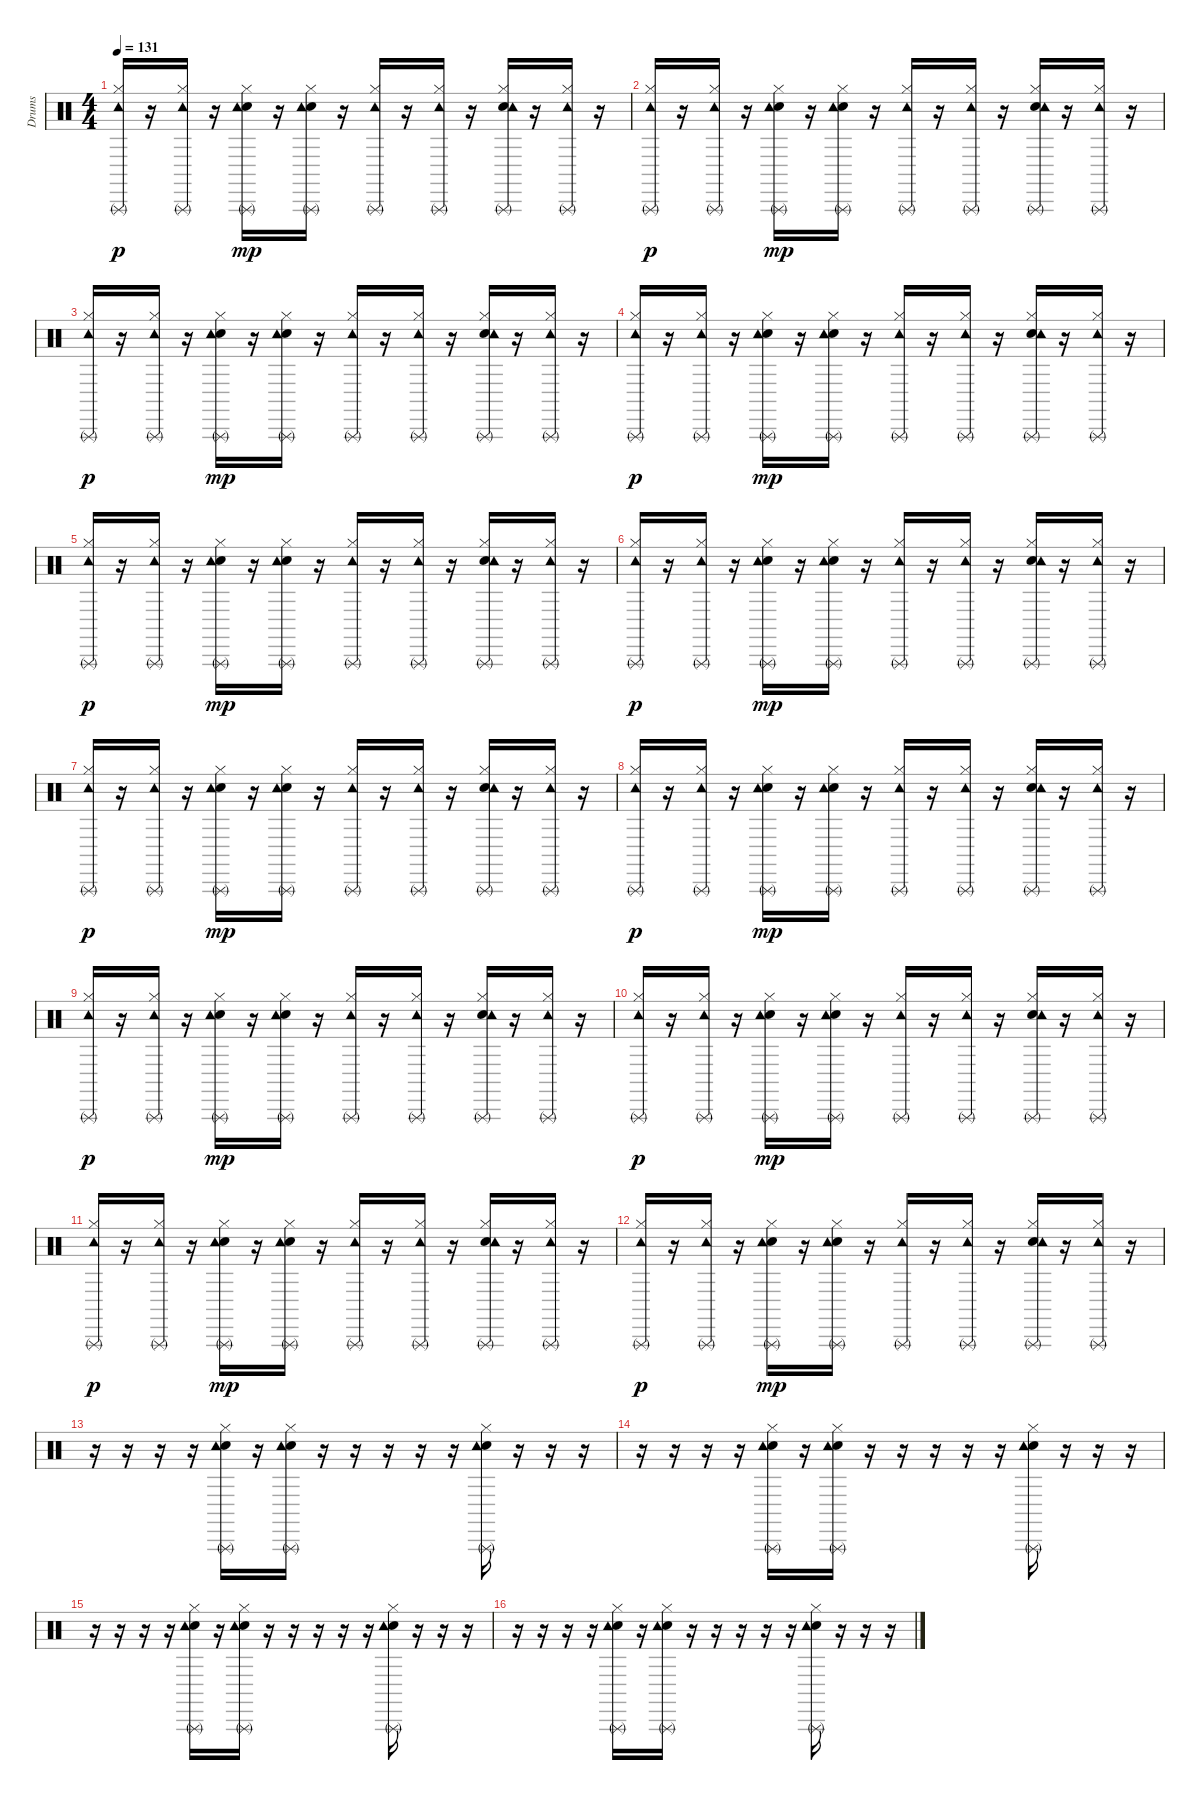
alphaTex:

\track ("Drums" "Drums") {instrument percussion}
\staff {score}
\articulation defaults
\ts (4 4)
\tempo 131
\clef neutral
\ks c
("Tambourine (hit)" "Hi-Hat (closed)" "Triangle (rnute)").16{dy p} r.16 ("Tambourine (hit)" "Hi-Hat (closed)" "Triangle (rnute)").16 r.16 ("Electric Snare (hit)" "Tambourine (hit)" "Hi-Hat (closed)" "Triangle (rnute)").16{dy mp} r.16 ("Electric Snare (hit)" "Tambourine (hit)" "Hi-Hat (closed)" "Triangle (rnute)").16 r.16 ("Tambourine (hit)" "Hi-Hat (closed)" "Triangle (rnute)").16 r.16 ("Tambourine (hit)" "Hi-Hat (closed)" "Triangle (rnute)").16 r.16 ("Electric Snare (hit)" "Tambourine (hit)" "Hi-Hat (closed)" "Triangle (rnute)").16 r.16 ("Tambourine (hit)" "Hi-Hat (closed)" "Triangle (rnute)").16 r.16 |
("Tambourine (hit)" "Hi-Hat (closed)" "Triangle (rnute)").16{dy p} r.16 ("Tambourine (hit)" "Hi-Hat (closed)" "Triangle (rnute)").16 r.16 ("Electric Snare (hit)" "Tambourine (hit)" "Hi-Hat (closed)" "Triangle (rnute)").16{dy mp} r.16 ("Electric Snare (hit)" "Tambourine (hit)" "Hi-Hat (closed)" "Triangle (rnute)").16 r.16 ("Tambourine (hit)" "Hi-Hat (closed)" "Triangle (rnute)").16 r.16 ("Tambourine (hit)" "Hi-Hat (closed)" "Triangle (rnute)").16 r.16 ("Electric Snare (hit)" "Tambourine (hit)" "Hi-Hat (closed)" "Triangle (rnute)").16 r.16 ("Tambourine (hit)" "Hi-Hat (closed)" "Triangle (rnute)").16 r.16 |
("Tambourine (hit)" "Hi-Hat (closed)" "Triangle (rnute)").16{dy p} r.16 ("Tambourine (hit)" "Hi-Hat (closed)" "Triangle (rnute)").16 r.16 ("Electric Snare (hit)" "Tambourine (hit)" "Hi-Hat (closed)" "Triangle (rnute)").16{dy mp} r.16 ("Electric Snare (hit)" "Tambourine (hit)" "Hi-Hat (closed)" "Triangle (rnute)").16 r.16 ("Tambourine (hit)" "Hi-Hat (closed)" "Triangle (rnute)").16 r.16 ("Tambourine (hit)" "Hi-Hat (closed)" "Triangle (rnute)").16 r.16 ("Electric Snare (hit)" "Tambourine (hit)" "Hi-Hat (closed)" "Triangle (rnute)").16 r.16 ("Tambourine (hit)" "Hi-Hat (closed)" "Triangle (rnute)").16 r.16 |
("Tambourine (hit)" "Hi-Hat (closed)" "Triangle (rnute)").16{dy p} r.16 ("Tambourine (hit)" "Hi-Hat (closed)" "Triangle (rnute)").16 r.16 ("Electric Snare (hit)" "Tambourine (hit)" "Hi-Hat (closed)" "Triangle (rnute)").16{dy mp} r.16 ("Electric Snare (hit)" "Tambourine (hit)" "Hi-Hat (closed)" "Triangle (rnute)").16 r.16 ("Tambourine (hit)" "Hi-Hat (closed)" "Triangle (rnute)").16 r.16 ("Tambourine (hit)" "Hi-Hat (closed)" "Triangle (rnute)").16 r.16 ("Electric Snare (hit)" "Tambourine (hit)" "Hi-Hat (closed)" "Triangle (rnute)").16 r.16 ("Tambourine (hit)" "Hi-Hat (closed)" "Triangle (rnute)").16 r.16 |
("Tambourine (hit)" "Hi-Hat (closed)" "Triangle (rnute)").16{dy p} r.16 ("Tambourine (hit)" "Hi-Hat (closed)" "Triangle (rnute)").16 r.16 ("Electric Snare (hit)" "Tambourine (hit)" "Hi-Hat (closed)" "Triangle (rnute)").16{dy mp} r.16 ("Electric Snare (hit)" "Tambourine (hit)" "Hi-Hat (closed)" "Triangle (rnute)").16 r.16 ("Tambourine (hit)" "Hi-Hat (closed)" "Triangle (rnute)").16 r.16 ("Tambourine (hit)" "Hi-Hat (closed)" "Triangle (rnute)").16 r.16 ("Electric Snare (hit)" "Tambourine (hit)" "Hi-Hat (closed)" "Triangle (rnute)").16 r.16 ("Tambourine (hit)" "Hi-Hat (closed)" "Triangle (rnute)").16 r.16 |
("Tambourine (hit)" "Hi-Hat (closed)" "Triangle (rnute)").16{dy p} r.16 ("Tambourine (hit)" "Hi-Hat (closed)" "Triangle (rnute)").16 r.16 ("Electric Snare (hit)" "Tambourine (hit)" "Hi-Hat (closed)" "Triangle (rnute)").16{dy mp} r.16 ("Electric Snare (hit)" "Tambourine (hit)" "Hi-Hat (closed)" "Triangle (rnute)").16 r.16 ("Tambourine (hit)" "Hi-Hat (closed)" "Triangle (rnute)").16 r.16 ("Tambourine (hit)" "Hi-Hat (closed)" "Triangle (rnute)").16 r.16 ("Electric Snare (hit)" "Tambourine (hit)" "Hi-Hat (closed)" "Triangle (rnute)").16 r.16 ("Tambourine (hit)" "Hi-Hat (closed)" "Triangle (rnute)").16 r.16 |
("Tambourine (hit)" "Hi-Hat (closed)" "Triangle (rnute)").16{dy p} r.16 ("Tambourine (hit)" "Hi-Hat (closed)" "Triangle (rnute)").16 r.16 ("Electric Snare (hit)" "Tambourine (hit)" "Hi-Hat (closed)" "Triangle (rnute)").16{dy mp} r.16 ("Electric Snare (hit)" "Tambourine (hit)" "Hi-Hat (closed)" "Triangle (rnute)").16 r.16 ("Tambourine (hit)" "Hi-Hat (closed)" "Triangle (rnute)").16 r.16 ("Tambourine (hit)" "Hi-Hat (closed)" "Triangle (rnute)").16 r.16 ("Electric Snare (hit)" "Tambourine (hit)" "Hi-Hat (closed)" "Triangle (rnute)").16 r.16 ("Tambourine (hit)" "Hi-Hat (closed)" "Triangle (rnute)").16 r.16 |
("Tambourine (hit)" "Hi-Hat (closed)" "Triangle (rnute)").16{dy p} r.16 ("Tambourine (hit)" "Hi-Hat (closed)" "Triangle (rnute)").16 r.16 ("Electric Snare (hit)" "Tambourine (hit)" "Hi-Hat (closed)" "Triangle (rnute)").16{dy mp} r.16 ("Electric Snare (hit)" "Tambourine (hit)" "Hi-Hat (closed)" "Triangle (rnute)").16 r.16 ("Tambourine (hit)" "Hi-Hat (closed)" "Triangle (rnute)").16 r.16 ("Tambourine (hit)" "Hi-Hat (closed)" "Triangle (rnute)").16 r.16 ("Electric Snare (hit)" "Tambourine (hit)" "Hi-Hat (closed)" "Triangle (rnute)").16 r.16 ("Tambourine (hit)" "Hi-Hat (closed)" "Triangle (rnute)").16 r.16 |
("Tambourine (hit)" "Hi-Hat (closed)" "Triangle (rnute)").16{dy p} r.16 ("Tambourine (hit)" "Hi-Hat (closed)" "Triangle (rnute)").16 r.16 ("Electric Snare (hit)" "Tambourine (hit)" "Hi-Hat (closed)" "Triangle (rnute)").16{dy mp} r.16 ("Electric Snare (hit)" "Tambourine (hit)" "Hi-Hat (closed)" "Triangle (rnute)").16 r.16 ("Tambourine (hit)" "Hi-Hat (closed)" "Triangle (rnute)").16 r.16 ("Tambourine (hit)" "Hi-Hat (closed)" "Triangle (rnute)").16 r.16 ("Electric Snare (hit)" "Tambourine (hit)" "Hi-Hat (closed)" "Triangle (rnute)").16 r.16 ("Tambourine (hit)" "Hi-Hat (closed)" "Triangle (rnute)").16 r.16 |
("Tambourine (hit)" "Hi-Hat (closed)" "Triangle (rnute)").16{dy p} r.16 ("Tambourine (hit)" "Hi-Hat (closed)" "Triangle (rnute)").16 r.16 ("Electric Snare (hit)" "Tambourine (hit)" "Hi-Hat (closed)" "Triangle (rnute)").16{dy mp} r.16 ("Electric Snare (hit)" "Tambourine (hit)" "Hi-Hat (closed)" "Triangle (rnute)").16 r.16 ("Tambourine (hit)" "Hi-Hat (closed)" "Triangle (rnute)").16 r.16 ("Tambourine (hit)" "Hi-Hat (closed)" "Triangle (rnute)").16 r.16 ("Electric Snare (hit)" "Tambourine (hit)" "Hi-Hat (closed)" "Triangle (rnute)").16 r.16 ("Tambourine (hit)" "Hi-Hat (closed)" "Triangle (rnute)").16 r.16 |
("Tambourine (hit)" "Hi-Hat (closed)" "Triangle (rnute)").16{dy p} r.16 ("Tambourine (hit)" "Hi-Hat (closed)" "Triangle (rnute)").16 r.16 ("Electric Snare (hit)" "Tambourine (hit)" "Hi-Hat (closed)" "Triangle (rnute)").16{dy mp} r.16 ("Electric Snare (hit)" "Tambourine (hit)" "Hi-Hat (closed)" "Triangle (rnute)").16 r.16 ("Tambourine (hit)" "Hi-Hat (closed)" "Triangle (rnute)").16 r.16 ("Tambourine (hit)" "Hi-Hat (closed)" "Triangle (rnute)").16 r.16 ("Electric Snare (hit)" "Tambourine (hit)" "Hi-Hat (closed)" "Triangle (rnute)").16 r.16 ("Tambourine (hit)" "Hi-Hat (closed)" "Triangle (rnute)").16 r.16 |
("Tambourine (hit)" "Hi-Hat (closed)" "Triangle (rnute)").16{dy p} r.16 ("Tambourine (hit)" "Hi-Hat (closed)" "Triangle (rnute)").16 r.16 ("Electric Snare (hit)" "Tambourine (hit)" "Hi-Hat (closed)" "Triangle (rnute)").16{dy mp} r.16 ("Electric Snare (hit)" "Tambourine (hit)" "Hi-Hat (closed)" "Triangle (rnute)").16 r.16 ("Tambourine (hit)" "Hi-Hat (closed)" "Triangle (rnute)").16 r.16 ("Tambourine (hit)" "Hi-Hat (closed)" "Triangle (rnute)").16 r.16 ("Electric Snare (hit)" "Tambourine (hit)" "Hi-Hat (closed)" "Triangle (rnute)").16 r.16 ("Tambourine (hit)" "Hi-Hat (closed)" "Triangle (rnute)").16 r.16 |
r.16 r.16 r.16 r.16 ("Electric Snare (hit)" "Tambourine (hit)" "Hi-Hat (closed)" "Triangle (rnute)").16 r.16 ("Electric Snare (hit)" "Tambourine (hit)" "Hi-Hat (closed)" "Triangle (rnute)").16 r.16 r.16 r.16 r.16 r.16 ("Electric Snare (hit)" "Tambourine (hit)" "Hi-Hat (closed)" "Triangle (rnute)").16 r.16 r.16 r.16 |
r.16 r.16 r.16 r.16 ("Electric Snare (hit)" "Tambourine (hit)" "Hi-Hat (closed)" "Triangle (rnute)").16 r.16 ("Electric Snare (hit)" "Tambourine (hit)" "Hi-Hat (closed)" "Triangle (rnute)").16 r.16 r.16 r.16 r.16 r.16 ("Electric Snare (hit)" "Tambourine (hit)" "Hi-Hat (closed)" "Triangle (rnute)").16 r.16 r.16 r.16 |
r.16 r.16 r.16 r.16 ("Electric Snare (hit)" "Tambourine (hit)" "Hi-Hat (closed)" "Triangle (rnute)").16 r.16 ("Electric Snare (hit)" "Tambourine (hit)" "Hi-Hat (closed)" "Triangle (rnute)").16 r.16 r.16 r.16 r.16 r.16 ("Electric Snare (hit)" "Tambourine (hit)" "Hi-Hat (closed)" "Triangle (rnute)").16 r.16 r.16 r.16 |
r.16 r.16 r.16 r.16 ("Electric Snare (hit)" "Tambourine (hit)" "Hi-Hat (closed)" "Triangle (rnute)").16 r.16 ("Electric Snare (hit)" "Tambourine (hit)" "Hi-Hat (closed)" "Triangle (rnute)").16 r.16 r.16 r.16 r.16 r.16 ("Electric Snare (hit)" "Tambourine (hit)" "Hi-Hat (closed)" "Triangle (rnute)").16 r.16 r.16 r.16
